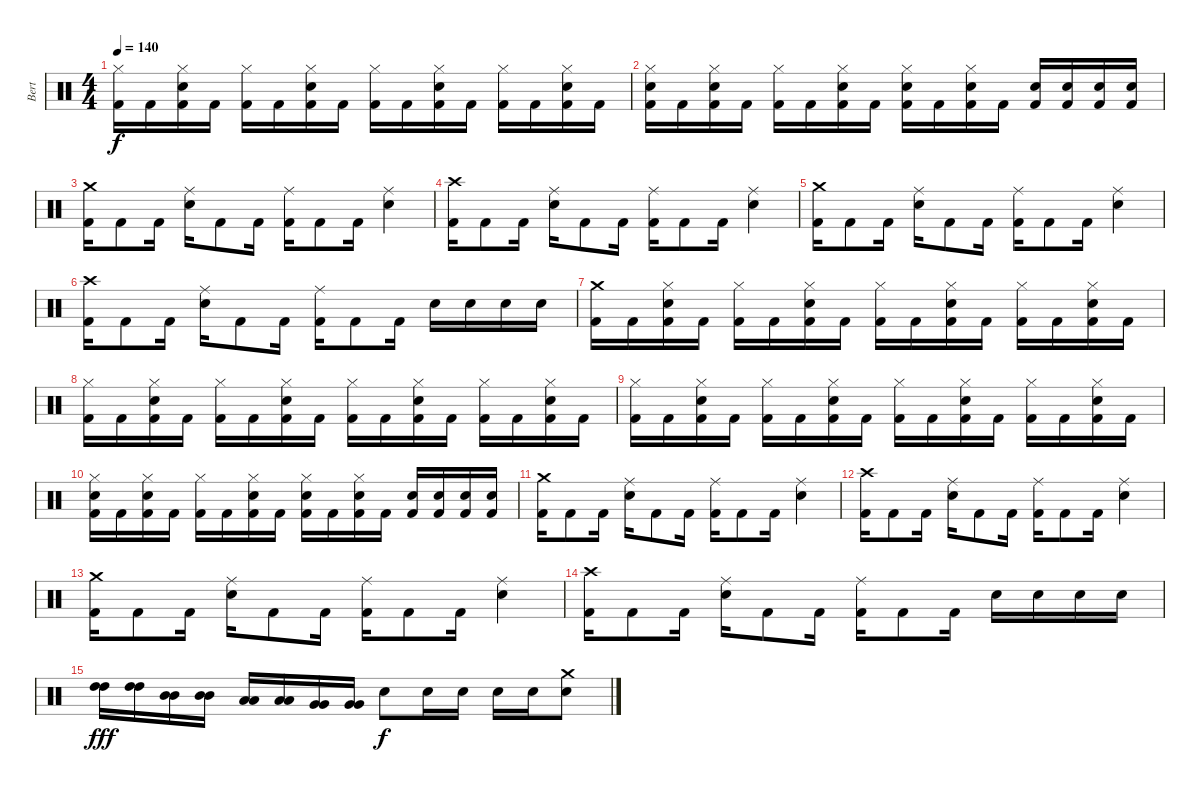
\track ("Bert" "Bert") {instrument percussion}
\staff {score}
\articulation defaults
\ts (4 4)
\tempo 140
\clef neutral
\ks c
("Hi-Hat (closed)" "Kick (hit) 2").16{dy f} "Kick (hit) 2".16 ("Hi-Hat (closed)" "Snare (hit) 2" "Kick (hit) 2").16 "Kick (hit) 2".16 ("Hi-Hat (closed)" "Kick (hit) 2").16 "Kick (hit) 2".16 ("Hi-Hat (closed)" "Snare (hit) 2" "Kick (hit) 2").16 "Kick (hit) 2".16 ("Hi-Hat (closed)" "Kick (hit) 2").16 "Kick (hit) 2".16 ("Hi-Hat (closed)" "Snare (hit) 2" "Kick (hit) 2").16 "Kick (hit) 2".16 ("Hi-Hat (closed)" "Kick (hit) 2").16 "Kick (hit) 2".16 ("Hi-Hat (closed)" "Snare (hit) 2" "Kick (hit) 2").16 "Kick (hit) 2".16 |
("Hi-Hat (closed)" "Snare (hit) 2" "Kick (hit) 2").16 "Kick (hit) 2".16 ("Hi-Hat (closed)" "Snare (hit) 2" "Kick (hit) 2").16 "Kick (hit) 2".16 ("Hi-Hat (closed)" "Kick (hit) 2").16 "Kick (hit) 2".16 ("Hi-Hat (closed)" "Snare (hit) 2" "Kick (hit) 2").16 "Kick (hit) 2".16 ("Hi-Hat (closed)" "Snare (hit) 2" "Kick (hit) 2").16 "Kick (hit) 2".16 ("Hi-Hat (closed)" "Snare (hit) 2" "Kick (hit) 2").16 "Kick (hit) 2".16 ("Snare (hit) 2" "Kick (hit) 2").16 ("Snare (hit) 2" "Kick (hit) 2").16 ("Snare (hit) 2" "Kick (hit) 2").16 ("Snare (hit) 2" "Kick (hit) 2").16 |
("Crash medium (hit)" "Kick (hit) 2").16 "Kick (hit) 2".8 "Kick (hit) 2".16 ("Ride (middle)" "Snare (hit) 2").16 "Kick (hit) 2".8 "Kick (hit) 2".16 ("Ride (middle)" "Kick (hit) 2").16 "Kick (hit) 2".8 "Kick (hit) 2".16 ("Ride (middle)" "Snare (hit) 2").4 |
("Crash high (hit)" "Kick (hit) 2").16 "Kick (hit) 2".8 "Kick (hit) 2".16 ("Ride (middle)" "Snare (hit) 2").16 "Kick (hit) 2".8 "Kick (hit) 2".16 ("Ride (middle)" "Kick (hit) 2").16 "Kick (hit) 2".8 "Kick (hit) 2".16 ("Ride (middle)" "Snare (hit) 2").4 |
("Crash medium (hit)" "Kick (hit) 2").16 "Kick (hit) 2".8 "Kick (hit) 2".16 ("Ride (middle)" "Snare (hit) 2").16 "Kick (hit) 2".8 "Kick (hit) 2".16 ("Ride (middle)" "Kick (hit) 2").16 "Kick (hit) 2".8 "Kick (hit) 2".16 ("Ride (middle)" "Snare (hit) 2").4 |
("Crash high (hit)" "Kick (hit) 2").16 "Kick (hit) 2".8 "Kick (hit) 2".16 ("Ride (middle)" "Snare (hit) 2").16 "Kick (hit) 2".8 "Kick (hit) 2".16 ("Ride (middle)" "Kick (hit) 2").16 "Kick (hit) 2".8 "Kick (hit) 2".16 "Snare (hit) 2".16 "Snare (hit) 2".16 "Snare (hit) 2".16 "Snare (hit) 2".16 |
("Crash medium (hit)" "Kick (hit) 2").16 "Kick (hit) 2".16 ("Hi-Hat (closed)" "Snare (hit) 2" "Kick (hit) 2").16 "Kick (hit) 2".16 ("Hi-Hat (closed)" "Kick (hit) 2").16 "Kick (hit) 2".16 ("Hi-Hat (closed)" "Snare (hit) 2" "Kick (hit) 2").16 "Kick (hit) 2".16 ("Hi-Hat (closed)" "Kick (hit) 2").16 "Kick (hit) 2".16 ("Hi-Hat (closed)" "Snare (hit) 2" "Kick (hit) 2").16 "Kick (hit) 2".16 ("Hi-Hat (closed)" "Kick (hit) 2").16 "Kick (hit) 2".16 ("Hi-Hat (closed)" "Snare (hit) 2" "Kick (hit) 2").16 "Kick (hit) 2".16 |
("Hi-Hat (closed)" "Kick (hit) 2").16 "Kick (hit) 2".16 ("Hi-Hat (closed)" "Snare (hit) 2" "Kick (hit) 2").16 "Kick (hit) 2".16 ("Hi-Hat (closed)" "Kick (hit) 2").16 "Kick (hit) 2".16 ("Hi-Hat (closed)" "Snare (hit) 2" "Kick (hit) 2").16 "Kick (hit) 2".16 ("Hi-Hat (closed)" "Kick (hit) 2").16 "Kick (hit) 2".16 ("Hi-Hat (closed)" "Snare (hit) 2" "Kick (hit) 2").16 "Kick (hit) 2".16 ("Hi-Hat (closed)" "Kick (hit) 2").16 "Kick (hit) 2".16 ("Hi-Hat (closed)" "Snare (hit) 2" "Kick (hit) 2").16 "Kick (hit) 2".16 |
("Hi-Hat (closed)" "Kick (hit) 2").16 "Kick (hit) 2".16 ("Hi-Hat (closed)" "Snare (hit) 2" "Kick (hit) 2").16 "Kick (hit) 2".16 ("Hi-Hat (closed)" "Kick (hit) 2").16 "Kick (hit) 2".16 ("Hi-Hat (closed)" "Snare (hit) 2" "Kick (hit) 2").16 "Kick (hit) 2".16 ("Hi-Hat (closed)" "Kick (hit) 2").16 "Kick (hit) 2".16 ("Hi-Hat (closed)" "Snare (hit) 2" "Kick (hit) 2").16 "Kick (hit) 2".16 ("Hi-Hat (closed)" "Kick (hit) 2").16 "Kick (hit) 2".16 ("Hi-Hat (closed)" "Snare (hit) 2" "Kick (hit) 2").16 "Kick (hit) 2".16 |
("Hi-Hat (closed)" "Snare (hit) 2" "Kick (hit) 2").16 "Kick (hit) 2".16 ("Hi-Hat (closed)" "Snare (hit) 2" "Kick (hit) 2").16 "Kick (hit) 2".16 ("Hi-Hat (closed)" "Kick (hit) 2").16 "Kick (hit) 2".16 ("Hi-Hat (closed)" "Snare (hit) 2" "Kick (hit) 2").16 "Kick (hit) 2".16 ("Hi-Hat (closed)" "Snare (hit) 2" "Kick (hit) 2").16 "Kick (hit) 2".16 ("Hi-Hat (closed)" "Snare (hit) 2" "Kick (hit) 2").16 "Kick (hit) 2".16 ("Snare (hit) 2" "Kick (hit) 2").16 ("Snare (hit) 2" "Kick (hit) 2").16 ("Snare (hit) 2" "Kick (hit) 2").16 ("Snare (hit) 2" "Kick (hit) 2").16 |
("Crash medium (hit)" "Kick (hit) 2").16 "Kick (hit) 2".8 "Kick (hit) 2".16 ("Ride (middle)" "Snare (hit) 2").16 "Kick (hit) 2".8 "Kick (hit) 2".16 ("Ride (middle)" "Kick (hit) 2").16 "Kick (hit) 2".8 "Kick (hit) 2".16 ("Ride (middle)" "Snare (hit) 2").4 |
("Crash high (hit)" "Kick (hit) 2").16 "Kick (hit) 2".8 "Kick (hit) 2".16 ("Ride (middle)" "Snare (hit) 2").16 "Kick (hit) 2".8 "Kick (hit) 2".16 ("Ride (middle)" "Kick (hit) 2").16 "Kick (hit) 2".8 "Kick (hit) 2".16 ("Ride (middle)" "Snare (hit) 2").4 |
("Crash medium (hit)" "Kick (hit) 2").16 "Kick (hit) 2".8 "Kick (hit) 2".16 ("Ride (middle)" "Snare (hit) 2").16 "Kick (hit) 2".8 "Kick (hit) 2".16 ("Ride (middle)" "Kick (hit) 2").16 "Kick (hit) 2".8 "Kick (hit) 2".16 ("Ride (middle)" "Snare (hit) 2").4 |
("Crash high (hit)" "Kick (hit) 2").16 "Kick (hit) 2".8 "Kick (hit) 2".16 ("Ride (middle)" "Snare (hit) 2").16 "Kick (hit) 2".8 "Kick (hit) 2".16 ("Ride (middle)" "Kick (hit) 2").16 "Kick (hit) 2".8 "Kick (hit) 2".16 "Snare (hit) 2".16 "Snare (hit) 2".16 "Snare (hit) 2".16 "Snare (hit) 2".16 |
("High Tom (hit)" "High Tom (hit)").16{dy fff} ("High Tom (hit)" "High Tom (hit)").16 ("Mid Tom (hit)" "Mid Tom (hit)").16 ("Mid Tom (hit)" "Mid Tom (hit)").16 ("Low Tom (hit)" "Low Tom (hit)").16 ("Low Tom (hit)" "Low Tom (hit)").16 ("Very Low Tom (hit)" "Very Low Tom (hit)").16 ("Very Low Tom (hit)" "Very Low Tom (hit)").16 "Snare (hit) 2".8{dy f} "Snare (hit) 2".16 "Snare (hit) 2".16 "Snare (hit) 2".16 "Snare (hit) 2".16 ("Crash medium (hit)" "Snare (hit) 2").8
